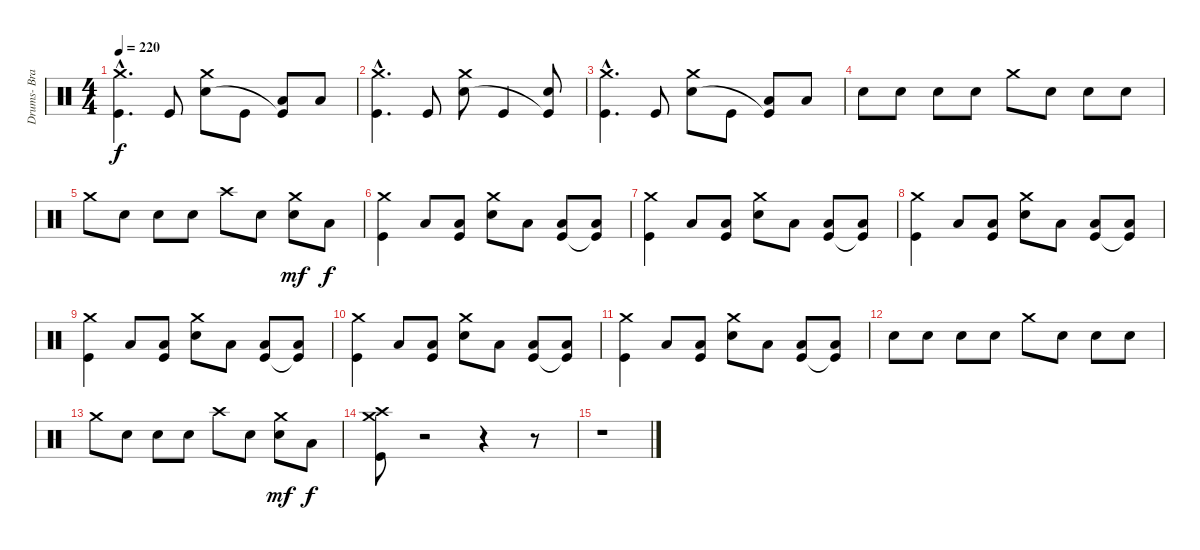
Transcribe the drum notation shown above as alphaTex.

\track ("Drums- Branden Steineckert" "Drums- Bra") {instrument percussion}
\staff {score}
\articulation defaults
\ts (4 4)
\tempo 220
\clef neutral
\ks c
("Crash medium (hit)"{hac} "Kick (hit)"{hac}).4{d dy f} "Kick (hit)".8 ("Crash medium (hit)" "Snare (hit) 2").8 "Kick (hit)".8 ("Low Tom (hit)" "Kick (hit)"{t}).8 "Low Floor Tom (hit)".8 |
("Crash medium (hit)"{hac} "Kick (hit)"{hac}).4{d} "Kick (hit)".8 ("Crash medium (hit)" "Snare (hit) 2").8 "Kick (hit)".4 ("Snare (hit) 2" "Kick (hit)"{t}).8 |
("Crash medium (hit)"{hac} "Kick (hit)"{hac}).4{d} "Kick (hit)".8 ("Crash medium (hit)" "Snare (hit) 2").8 "Kick (hit)".8 ("Low Tom (hit)" "Kick (hit)"{t}).8 "Low Floor Tom (hit)".8 |
"Snare (hit) 2".8 "Snare (hit) 2".8 "Snare (hit) 2".8 "Snare (hit) 2".8 "Crash medium (hit)".8 "Snare (hit) 2".8 "Snare (hit) 2".8 "Snare (hit) 2".8 |
"Crash medium (hit)".8 "Snare (hit) 2".8 "Snare (hit) 2".8 "Snare (hit) 2".8 "Crash high (hit)".8 "Snare (hit) 2".8 ("Crash medium (hit)" "Snare (hit) 2").8{dy mf} "Low Tom (hit)".8{dy f} |
("Crash medium (hit)" "Kick (hit)").4 "Low Floor Tom (hit)".8 ("Low Floor Tom (hit)" "Kick (hit)").8 ("Crash medium (hit)" "Snare (hit) 2").8 "Low Tom (hit)".8 ("Low Floor Tom (hit)" "Kick (hit)").8 ("Low Floor Tom (hit)" "Kick (hit)"{t}).8 |
("Crash medium (hit)" "Kick (hit)").4 "Low Floor Tom (hit)".8 ("Low Floor Tom (hit)" "Kick (hit)").8 ("Crash medium (hit)" "Snare (hit) 2").8 "Low Tom (hit)".8 ("Low Floor Tom (hit)" "Kick (hit)").8 ("Low Floor Tom (hit)" "Kick (hit)"{t}).8 |
("Crash medium (hit)" "Kick (hit)").4 "Low Floor Tom (hit)".8 ("Low Floor Tom (hit)" "Kick (hit)").8 ("Crash medium (hit)" "Snare (hit) 2").8 "Low Tom (hit)".8 ("Low Floor Tom (hit)" "Kick (hit)").8 ("Low Floor Tom (hit)" "Kick (hit)"{t}).8 |
("Crash medium (hit)" "Kick (hit)").4 "Low Floor Tom (hit)".8 ("Low Floor Tom (hit)" "Kick (hit)").8 ("Crash medium (hit)" "Snare (hit) 2").8 "Low Tom (hit)".8 ("Low Floor Tom (hit)" "Kick (hit)").8 ("Low Floor Tom (hit)" "Kick (hit)"{t}).8 |
("Crash medium (hit)" "Kick (hit)").4 "Low Floor Tom (hit)".8 ("Low Floor Tom (hit)" "Kick (hit)").8 ("Crash medium (hit)" "Snare (hit) 2").8 "Low Tom (hit)".8 ("Low Floor Tom (hit)" "Kick (hit)").8 ("Low Floor Tom (hit)" "Kick (hit)"{t}).8 |
("Crash medium (hit)" "Kick (hit)").4 "Low Floor Tom (hit)".8 ("Low Floor Tom (hit)" "Kick (hit)").8 ("Crash medium (hit)" "Snare (hit) 2").8 "Low Tom (hit)".8 ("Low Floor Tom (hit)" "Kick (hit)").8 ("Low Floor Tom (hit)" "Kick (hit)"{t}).8 |
"Snare (hit) 2".8 "Snare (hit) 2".8 "Snare (hit) 2".8 "Snare (hit) 2".8 "Crash medium (hit)".8 "Snare (hit) 2".8 "Snare (hit) 2".8 "Snare (hit) 2".8 |
"Crash medium (hit)".8 "Snare (hit) 2".8 "Snare (hit) 2".8 "Snare (hit) 2".8 "Crash high (hit)".8 "Snare (hit) 2".8 ("Crash medium (hit)" "Snare (hit) 2").8{dy mf} "Low Tom (hit)".8{dy f} |
("Crash high (hit)" "Crash medium (hit)" "Kick (hit)").8 r.2 r.4 r.8 |
r.1
